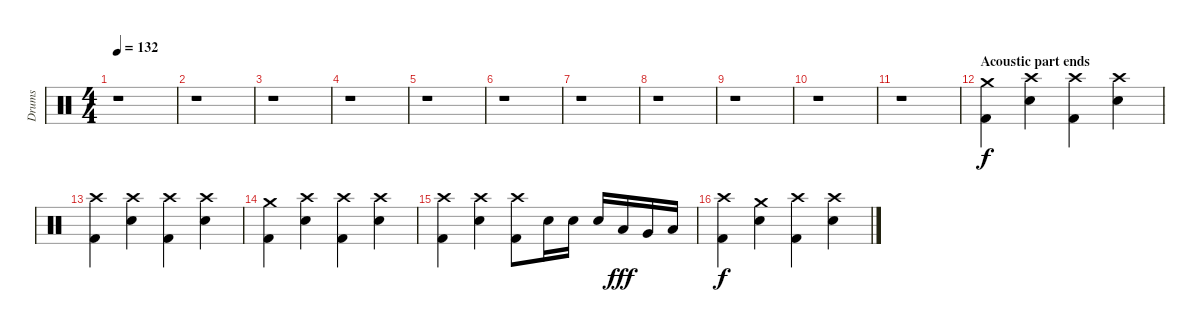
\track ("Drums" "Drums") {instrument percussion}
\staff {score}
\articulation defaults
\ts (4 4)
\tempo 132
\clef neutral
\ks c
r.1{dy fff} |
r.1 |
r.1 |
r.1 |
r.1 |
r.1 |
r.1 |
r.1 |
r.1 |
r.1 |
r.1 |
\section ("" "Acoustic part ends")
("Kick (hit) 2" "Crash medium (hit)").4{dy f} ("Crash high (hit)" "Snare (hit) 2").4 ("Kick (hit) 2" "Crash high (hit)").4 ("Crash high (hit)" "Snare (hit) 2").4 |
("Kick (hit) 2" "Crash high (hit)").4 ("Crash high (hit)" "Snare (hit) 2").4 ("Kick (hit) 2" "Crash high (hit)").4 ("Crash high (hit)" "Snare (hit) 2").4 |
("Kick (hit) 2" "Crash medium (hit)").4 ("Crash high (hit)" "Snare (hit) 2").4 ("Kick (hit) 2" "Crash high (hit)").4 ("Crash high (hit)" "Snare (hit) 2").4 |
("Kick (hit) 2" "Crash high (hit)").4 ("Crash high (hit)" "Snare (hit) 2").4 ("Kick (hit) 2" "Crash high (hit)").8 "Snare (hit) 2".16 "Snare (hit) 2".16 "Snare (hit) 2".16 "Low Tom (hit)".16{dy fff} "Very Low Tom (hit)".16 "Low Floor Tom (hit)".16 |
("Kick (hit) 2" "Crash high (hit)").4{dy f} ("Crash medium (hit)" "Snare (hit) 2").4 ("Kick (hit) 2" "Crash high (hit)").4 ("Crash high (hit)" "Snare (hit) 2").4
